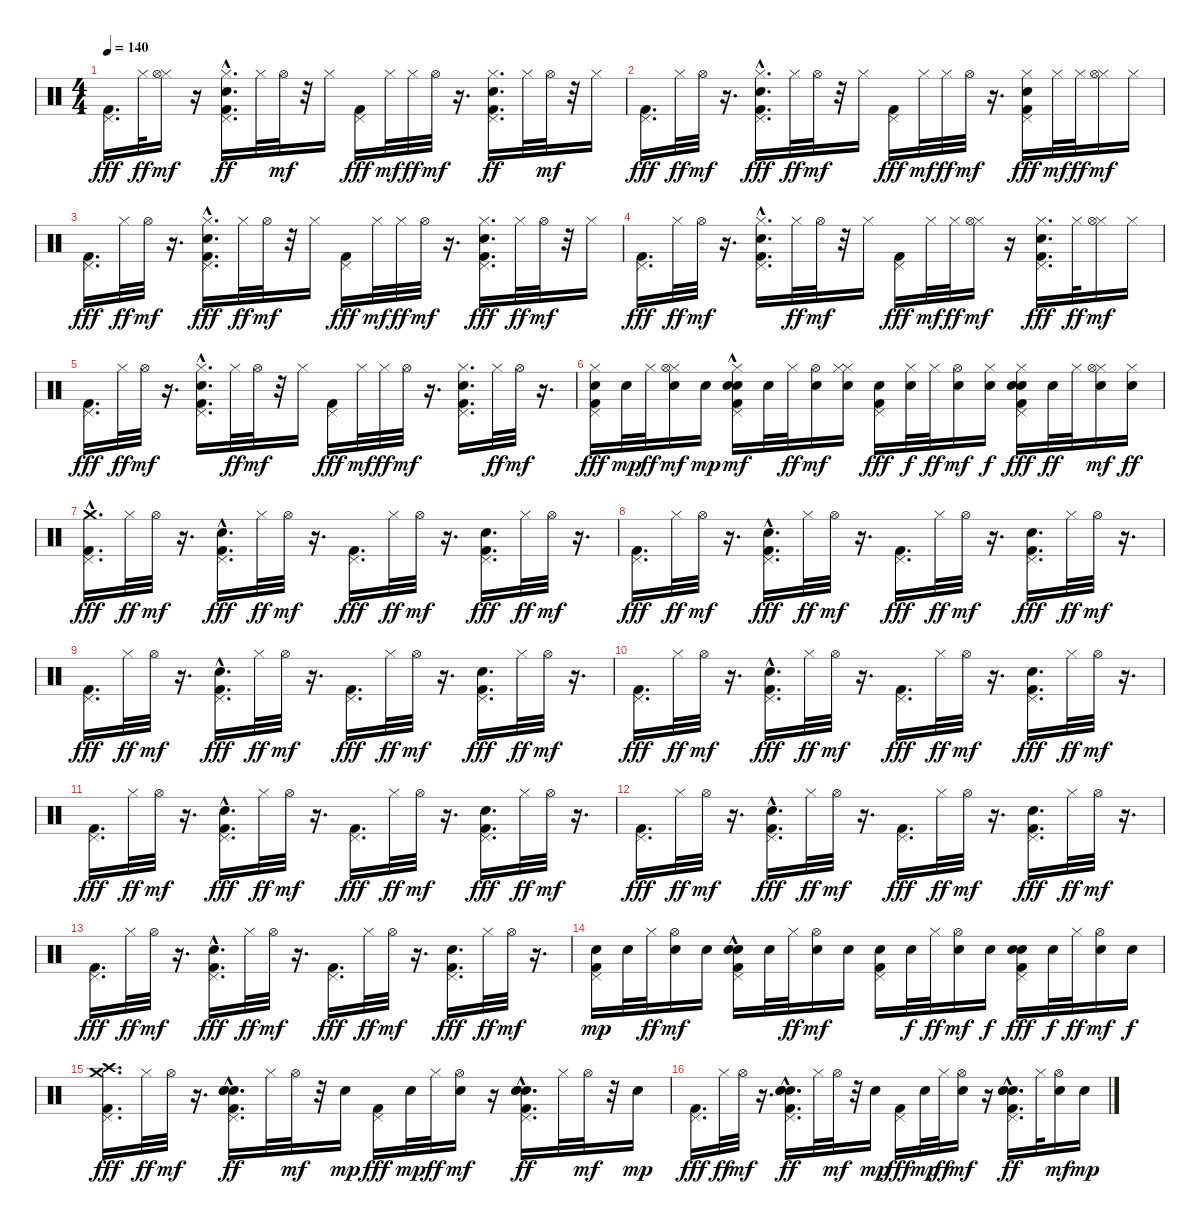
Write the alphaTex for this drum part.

\track "" {instrument percussion}
\staff {score}
\articulation defaults
\ts (4 4)
\tempo 140
\clef neutral
\ks c
("Pedal Hi-Hat (hit)" "Kick (hit) 2").16{d dy fff} "Hi-Hat (closed)".32{dy ff} ("Hi-Hat (closed)" "Hi-Hat (open)").16{dy mf} r.16 ("Hi-Hat (closed)" "Kick (hit) 2" "Pedal Hi-Hat (hit)" "Hand Clap (hit)"{hac}).16{d dy ff} "Hi-Hat (closed)".32 "Hi-Hat (open)".32{dy mf} r.32 "Hi-Hat (closed)".16 ("Pedal Hi-Hat (hit)" "Kick (hit) 2").16{dy fff} "Hi-Hat (closed)".32{dy mf} "Hi-Hat (closed)".32{dy ff} "Hi-Hat (open)".32{dy mf} r.16{d} ("Hi-Hat (closed)" "Kick (hit) 2" "Pedal Hi-Hat (hit)" "Hand Clap (hit)").16{d dy ff} "Hi-Hat (closed)".32 "Hi-Hat (open)".32{dy mf} r.32 "Hi-Hat (closed)".16 |
("Pedal Hi-Hat (hit)" "Kick (hit) 2").16{d dy fff} "Hi-Hat (closed)".32{dy ff} "Hi-Hat (open)".32{dy mf} r.16{d} ("Hi-Hat (closed)" "Hand Clap (hit)"{hac} "Pedal Hi-Hat (hit)" "Kick (hit) 2").16{d dy fff} "Hi-Hat (closed)".32{dy ff} "Hi-Hat (open)".32{dy mf} r.32 "Hi-Hat (closed)".16 ("Pedal Hi-Hat (hit)" "Kick (hit) 2").16{dy fff} "Hi-Hat (closed)".32{dy mf} "Hi-Hat (closed)".32{dy ff} "Hi-Hat (open)".32{dy mf} r.16{d} ("Hi-Hat (closed)" "Pedal Hi-Hat (hit)" "Kick (hit) 2" "Hand Clap (hit)").16{dy fff} "Hi-Hat (closed)".32{dy mf} "Hi-Hat (closed)".32{dy ff} ("Hi-Hat (closed)" "Hi-Hat (open)").16{dy mf} "Hi-Hat (closed)".16 |
("Pedal Hi-Hat (hit)" "Kick (hit) 2").16{d dy fff} "Hi-Hat (closed)".32{dy ff} "Hi-Hat (open)".32{dy mf} r.16{d} ("Pedal Hi-Hat (hit)" "Hand Clap (hit)"{hac} "Hi-Hat (closed)" "Kick (hit) 2").16{d dy fff} "Hi-Hat (closed)".32{dy ff} "Hi-Hat (open)".32{dy mf} r.32 "Hi-Hat (closed)".16 ("Pedal Hi-Hat (hit)" "Kick (hit) 2").16{dy fff} "Hi-Hat (closed)".32{dy mf} "Hi-Hat (closed)".32{dy ff} "Hi-Hat (open)".32{dy mf} r.16{d} ("Pedal Hi-Hat (hit)" "Hand Clap (hit)" "Hi-Hat (closed)" "Kick (hit) 2").16{d dy fff} "Hi-Hat (closed)".32{dy ff} "Hi-Hat (open)".32{dy mf} r.32 "Hi-Hat (closed)".16 |
("Pedal Hi-Hat (hit)" "Kick (hit) 2").16{d dy fff} "Hi-Hat (closed)".32{dy ff} "Hi-Hat (open)".32{dy mf} r.16{d} ("Pedal Hi-Hat (hit)" "Kick (hit) 2" "Hi-Hat (closed)" "Hand Clap (hit)"{hac}).16{d} "Hi-Hat (closed)".32{dy ff} "Hi-Hat (open)".32{dy mf} r.32 "Hi-Hat (closed)".16 ("Pedal Hi-Hat (hit)" "Kick (hit) 2").16{dy fff} "Hi-Hat (closed)".32{dy mf} "Hi-Hat (closed)".32{dy ff} ("Hi-Hat (closed)" "Hi-Hat (open)").16{dy mf} r.16 ("Pedal Hi-Hat (hit)" "Hand Clap (hit)" "Hi-Hat (closed)" "Kick (hit) 2").16{d dy fff} "Hi-Hat (closed)".32{dy ff} ("Hi-Hat (closed)" "Hi-Hat (open)").16{dy mf} "Hi-Hat (closed)".16 |
("Pedal Hi-Hat (hit)" "Kick (hit) 2").16{d dy fff} "Hi-Hat (closed)".32{dy ff} "Hi-Hat (open)".32{dy mf} r.16{d} ("Pedal Hi-Hat (hit)" "Hand Clap (hit)"{hac} "Kick (hit) 2" "Hi-Hat (closed)").16{d} "Hi-Hat (closed)".32{dy ff} "Hi-Hat (open)".32{dy mf} r.32 "Hi-Hat (closed)".16 ("Pedal Hi-Hat (hit)" "Kick (hit) 2").16{dy fff} "Hi-Hat (closed)".32{dy mf} "Hi-Hat (closed)".32{dy ff} "Hi-Hat (open)".32{dy mf} r.16{d} ("Pedal Hi-Hat (hit)" "Kick (hit) 2" "Hi-Hat (closed)" "Hand Clap (hit)").16{d} "Hi-Hat (closed)".32{dy ff} "Hi-Hat (open)".32{dy mf} r.16{d} |
("Hi-Hat (closed)" "Electric Snare (hit)" "Pedal Hi-Hat (hit)" "Kick (hit) 2").16{dy fff} "Electric Snare (hit)".32{dy mp} "Hi-Hat (closed)".32{dy ff} ("Hi-Hat (closed)" "Electric Snare (hit)" "Hi-Hat (open)").16{dy mf} "Electric Snare (hit)".16{dy mp} ("Pedal Hi-Hat (hit)" "Kick (hit) 2" "Hand Clap (hit)"{hac} "Electric Snare (hit)" "Hi-Hat (closed)").16{dy mf} "Electric Snare (hit)".32 "Hi-Hat (closed)".32{dy ff} ("Electric Snare (hit)" "Hi-Hat (open)").16{dy mf} ("Hi-Hat (closed)" "Hi-Hat (closed)" "Electric Snare (hit)").16 ("Pedal Hi-Hat (hit)" "Kick (hit) 2" "Electric Snare (hit)").16{dy fff} ("Hi-Hat (closed)" "Electric Snare (hit)").32{dy f} "Hi-Hat (closed)".32{dy ff} ("Electric Snare (hit)" "Hi-Hat (open)").16{dy mf} ("Hi-Hat (closed)" "Electric Snare (hit)").16{dy f} ("Hi-Hat (closed)" "Electric Snare (hit)" "Pedal Hi-Hat (hit)" "Kick (hit) 2" "Hand Clap (hit)").16{dy fff} "Electric Snare (hit)".32{dy ff} "Hi-Hat (closed)".32 ("Hi-Hat (closed)" "Electric Snare (hit)" "Hi-Hat (open)").16{dy mf} ("Hi-Hat (closed)" "Electric Snare (hit)").16{dy ff} |
("Pedal Hi-Hat (hit)" "Kick (hit) 2" "Crash medium (hit)"{hac}).16{d dy fff} "Hi-Hat (closed)".32{dy ff} "Hi-Hat (open)".32{dy mf} r.16{d} ("Pedal Hi-Hat (hit)" "Kick (hit) 2" "Hand Clap (hit)"{hac}).16{d dy fff} "Hi-Hat (closed)".32{dy ff} "Hi-Hat (open)".32{dy mf} r.16{d} ("Pedal Hi-Hat (hit)" "Kick (hit) 2").16{d dy fff} "Hi-Hat (closed)".32{dy ff} "Hi-Hat (open)".32{dy mf} r.16{d} ("Pedal Hi-Hat (hit)" "Kick (hit) 2" "Hand Clap (hit)").16{d dy fff} "Hi-Hat (closed)".32{dy ff} "Hi-Hat (open)".32{dy mf} r.16{d} |
("Pedal Hi-Hat (hit)" "Kick (hit) 2").16{d dy fff} "Hi-Hat (closed)".32{dy ff} "Hi-Hat (open)".32{dy mf} r.16{d} ("Pedal Hi-Hat (hit)" "Kick (hit) 2" "Hand Clap (hit)"{hac}).16{d dy fff} "Hi-Hat (closed)".32{dy ff} "Hi-Hat (open)".32{dy mf} r.16{d} ("Pedal Hi-Hat (hit)" "Kick (hit) 2").16{d dy fff} "Hi-Hat (closed)".32{dy ff} "Hi-Hat (open)".32{dy mf} r.16{d} ("Pedal Hi-Hat (hit)" "Kick (hit) 2" "Hand Clap (hit)").16{d dy fff} "Hi-Hat (closed)".32{dy ff} "Hi-Hat (open)".32{dy mf} r.16{d} |
("Pedal Hi-Hat (hit)" "Kick (hit) 2").16{d dy fff} "Hi-Hat (closed)".32{dy ff} "Hi-Hat (open)".32{dy mf} r.16{d} ("Pedal Hi-Hat (hit)" "Kick (hit) 2" "Hand Clap (hit)"{hac}).16{d dy fff} "Hi-Hat (closed)".32{dy ff} "Hi-Hat (open)".32{dy mf} r.16{d} ("Pedal Hi-Hat (hit)" "Kick (hit) 2").16{d dy fff} "Hi-Hat (closed)".32{dy ff} "Hi-Hat (open)".32{dy mf} r.16{d} ("Pedal Hi-Hat (hit)" "Kick (hit) 2" "Hand Clap (hit)").16{d dy fff} "Hi-Hat (closed)".32{dy ff} "Hi-Hat (open)".32{dy mf} r.16{d} |
("Pedal Hi-Hat (hit)" "Kick (hit) 2").16{d dy fff} "Hi-Hat (closed)".32{dy ff} "Hi-Hat (open)".32{dy mf} r.16{d} ("Pedal Hi-Hat (hit)" "Kick (hit) 2" "Hand Clap (hit)"{hac}).16{d dy fff} "Hi-Hat (closed)".32{dy ff} "Hi-Hat (open)".32{dy mf} r.16{d} ("Pedal Hi-Hat (hit)" "Kick (hit) 2").16{d dy fff} "Hi-Hat (closed)".32{dy ff} "Hi-Hat (open)".32{dy mf} r.16{d} ("Pedal Hi-Hat (hit)" "Kick (hit) 2" "Hand Clap (hit)").16{d dy fff} "Hi-Hat (closed)".32{dy ff} "Hi-Hat (open)".32{dy mf} r.16{d} |
("Pedal Hi-Hat (hit)" "Kick (hit) 2").16{d dy fff} "Hi-Hat (closed)".32{dy ff} "Hi-Hat (open)".32{dy mf} r.16{d} ("Pedal Hi-Hat (hit)" "Kick (hit) 2" "Hand Clap (hit)"{hac}).16{d dy fff} "Hi-Hat (closed)".32{dy ff} "Hi-Hat (open)".32{dy mf} r.16{d} ("Pedal Hi-Hat (hit)" "Kick (hit) 2").16{d dy fff} "Hi-Hat (closed)".32{dy ff} "Hi-Hat (open)".32{dy mf} r.16{d} ("Pedal Hi-Hat (hit)" "Kick (hit) 2" "Hand Clap (hit)").16{d dy fff} "Hi-Hat (closed)".32{dy ff} "Hi-Hat (open)".32{dy mf} r.16{d} |
("Pedal Hi-Hat (hit)" "Kick (hit) 2").16{d dy fff} "Hi-Hat (closed)".32{dy ff} "Hi-Hat (open)".32{dy mf} r.16{d} ("Pedal Hi-Hat (hit)" "Kick (hit) 2" "Hand Clap (hit)"{hac}).16{d dy fff} "Hi-Hat (closed)".32{dy ff} "Hi-Hat (open)".32{dy mf} r.16{d} ("Pedal Hi-Hat (hit)" "Kick (hit) 2").16{d dy fff} "Hi-Hat (closed)".32{dy ff} "Hi-Hat (open)".32{dy mf} r.16{d} ("Pedal Hi-Hat (hit)" "Kick (hit) 2" "Hand Clap (hit)").16{d dy fff} "Hi-Hat (closed)".32{dy ff} "Hi-Hat (open)".32{dy mf} r.16{d} |
("Pedal Hi-Hat (hit)" "Kick (hit) 2").16{d dy fff} "Hi-Hat (closed)".32{dy ff} "Hi-Hat (open)".32{dy mf} r.16{d} ("Pedal Hi-Hat (hit)" "Kick (hit) 2" "Hand Clap (hit)"{hac}).16{d dy fff} "Hi-Hat (closed)".32{dy ff} "Hi-Hat (open)".32{dy mf} r.16{d} ("Pedal Hi-Hat (hit)" "Kick (hit) 2").16{d dy fff} "Hi-Hat (closed)".32{dy ff} "Hi-Hat (open)".32{dy mf} r.16{d} ("Pedal Hi-Hat (hit)" "Kick (hit) 2" "Hand Clap (hit)").16{d dy fff} "Hi-Hat (closed)".32{dy ff} "Hi-Hat (open)".32{dy mf} r.16{d} |
("Pedal Hi-Hat (hit)" "Kick (hit) 2" "Snare (hit) 2").16{dy mp} "Snare (hit) 2".32 "Hi-Hat (closed)".32{dy ff} ("Snare (hit) 2" "Hi-Hat (open)").16{dy mf} "Snare (hit) 2".16 ("Pedal Hi-Hat (hit)" "Kick (hit) 2" "Snare (hit) 2" "Hand Clap (hit)"{hac}).16 "Snare (hit) 2".32 "Hi-Hat (closed)".32{dy ff} ("Snare (hit) 2" "Hi-Hat (open)").16{dy mf} "Snare (hit) 2".16 ("Pedal Hi-Hat (hit)" "Kick (hit) 2" "Snare (hit) 2").16 "Snare (hit) 2".32{dy f} "Hi-Hat (closed)".32{dy ff} ("Snare (hit) 2" "Hi-Hat (open)").16{dy mf} "Snare (hit) 2".16{dy f} ("Pedal Hi-Hat (hit)" "Kick (hit) 2" "Snare (hit) 2" "Hand Clap (hit)").16{dy fff} "Snare (hit) 2".32{dy f} "Hi-Hat (closed)".32{dy ff} ("Snare (hit) 2" "Hi-Hat (open)").16{dy mf} "Snare (hit) 2".16{dy f} |
("Pedal Hi-Hat (hit)" "Kick (hit) 2" "Crash high (hit)" "Crash medium (hit)").16{d dy fff} "Hi-Hat (closed)".32{dy ff} "Hi-Hat (open)".32{dy mf} r.16{d} ("Pedal Hi-Hat (hit)" "Kick (hit) 2" "Electric Snare (hit)" "Snare (hit) 2" "Hand Clap (hit)"{hac}).16{d dy ff} "Hi-Hat (closed)".32 "Hi-Hat (open)".32{dy mf} r.32 "Electric Snare (hit)".16{dy mp} ("Pedal Hi-Hat (hit)" "Kick (hit) 2").16{dy fff} "Electric Snare (hit)".32{dy mp} "Hi-Hat (closed)".32{dy ff} ("Electric Snare (hit)" "Hi-Hat (open)").16{dy mf} r.16 ("Pedal Hi-Hat (hit)" "Kick (hit) 2" "Electric Snare (hit)" "Snare (hit) 2"{hac} "Hand Clap (hit)").16{d dy ff} "Hi-Hat (closed)".32 "Hi-Hat (open)".32{dy mf} r.32 "Electric Snare (hit)".16{dy mp} |
("Pedal Hi-Hat (hit)" "Kick (hit) 2").16{d dy fff} "Hi-Hat (closed)".32{dy ff} "Hi-Hat (open)".32{dy mf} r.16{d} ("Pedal Hi-Hat (hit)" "Kick (hit) 2" "Electric Snare (hit)" "Snare (hit) 2"{hac} "Hand Clap (hit)"{hac}).16{d dy ff} "Hi-Hat (closed)".32 "Hi-Hat (open)".32{dy mf} r.32 "Electric Snare (hit)".16{dy mp} ("Pedal Hi-Hat (hit)" "Kick (hit) 2").16{dy fff} "Electric Snare (hit)".32{dy mp} "Hi-Hat (closed)".32{dy ff} ("Electric Snare (hit)" "Hi-Hat (open)").16{dy mf} r.16 ("Pedal Hi-Hat (hit)" "Kick (hit) 2" "Electric Snare (hit)" "Snare (hit) 2"{hac} "Hand Clap (hit)").16{d dy ff} "Hi-Hat (closed)".32 ("Electric Snare (hit)" "Hi-Hat (open)").16{dy mf} "Electric Snare (hit)".16{dy mp}
